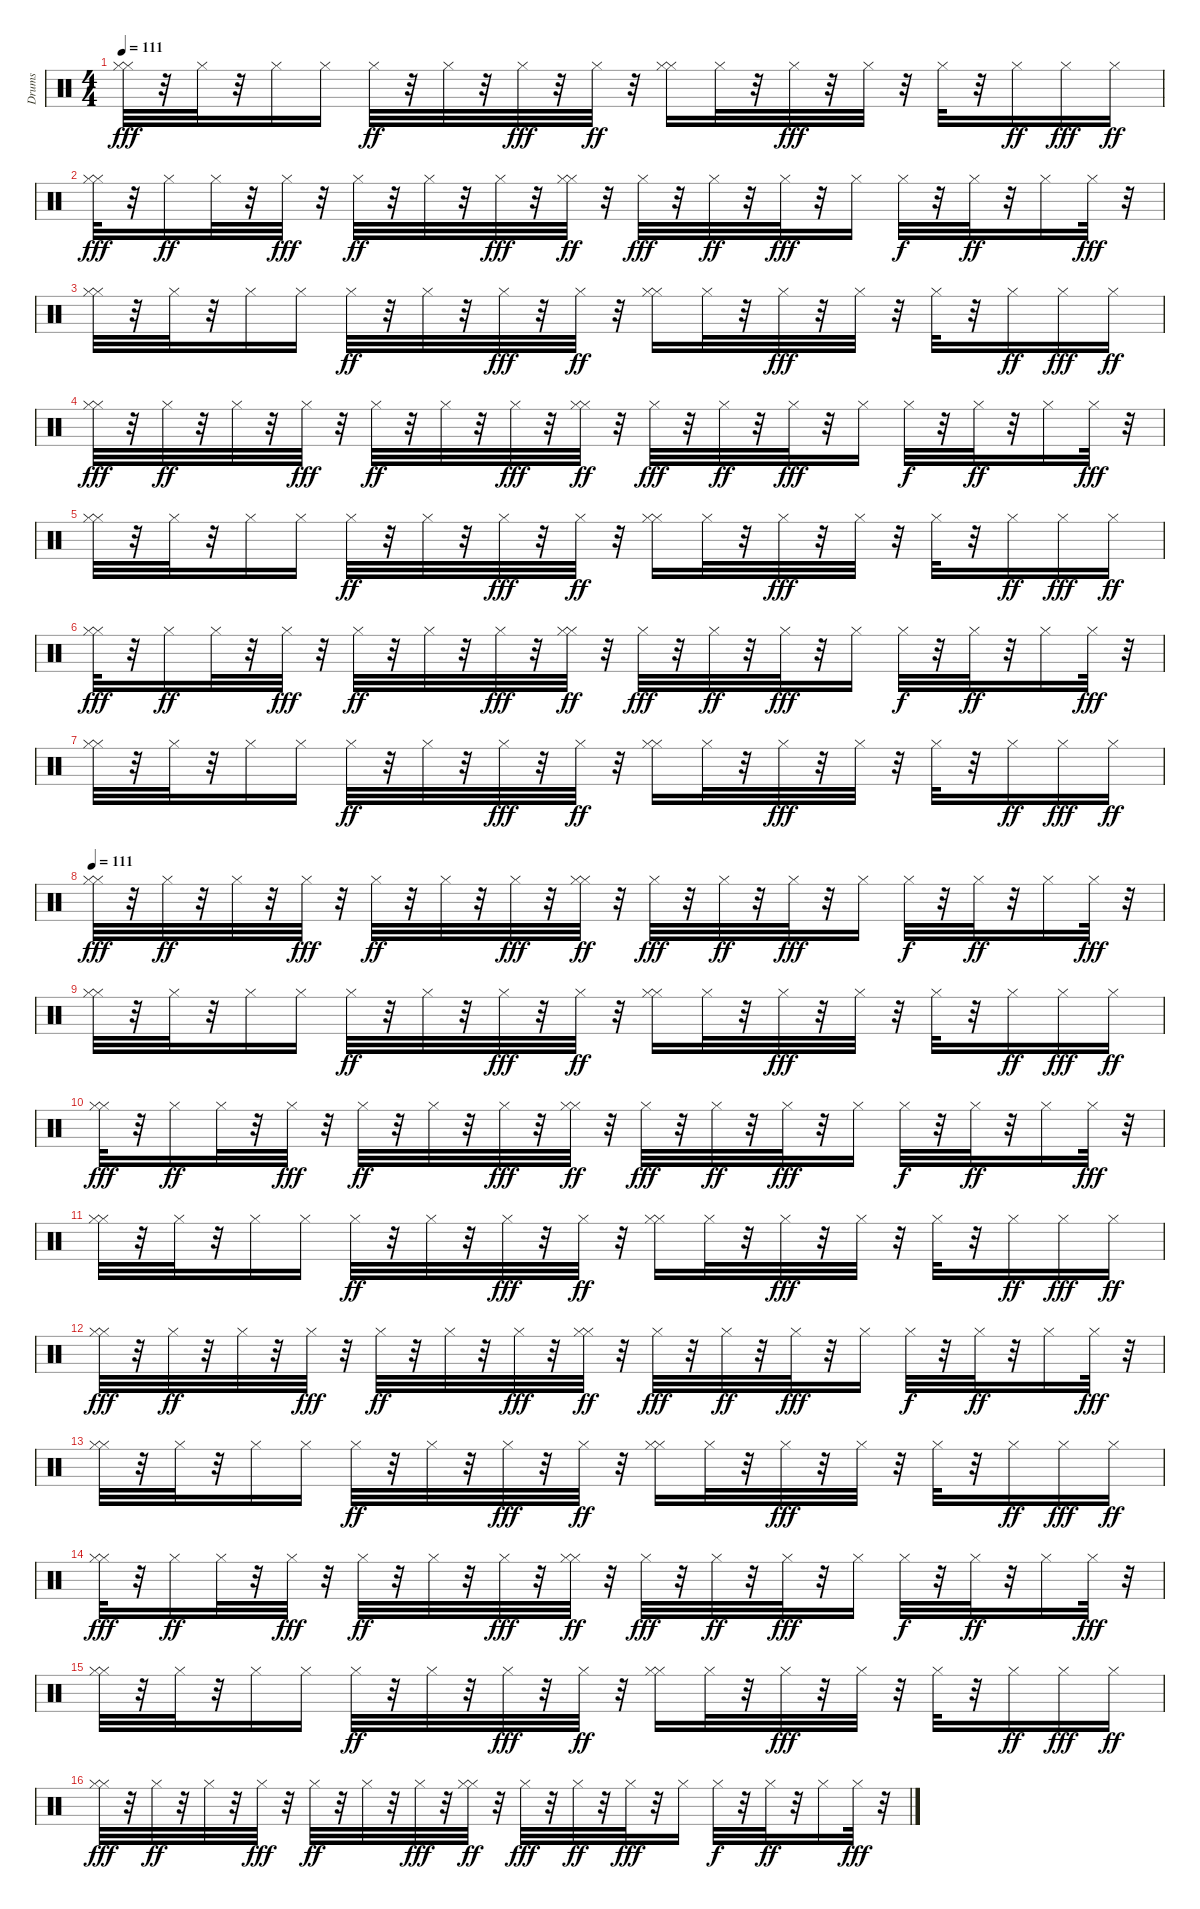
\track ("Drums" "Drums") {instrument percussion}
\staff {score}
\articulation defaults
\ts (4 4)
\tempo 111
\clef neutral
\ks c
("Hi-Hat (closed)" "Hi-Hat (closed)").32{dy fff} r.32 "Hi-Hat (closed)".32 r.32 "Hi-Hat (closed)".16 "Hi-Hat (closed)".16 "Hi-Hat (closed)".32{dy ff} r.32 "Hi-Hat (closed)".32 r.32 "Hi-Hat (closed)".32{dy fff} r.32 "Hi-Hat (closed)".32{dy ff} r.32 ("Hi-Hat (closed)" "Hi-Hat (closed)").16 "Hi-Hat (closed)".32 r.32 "Hi-Hat (closed)".32{dy fff} r.32 "Hi-Hat (closed)".32 r.32 "Hi-Hat (closed)".32 r.32 "Hi-Hat (closed)".16{dy ff} "Hi-Hat (closed)".16{dy fff} "Hi-Hat (closed)".16{dy ff} |
("Hi-Hat (closed)" "Hi-Hat (closed)").32{dy fff} r.32 "Hi-Hat (closed)".16{dy ff} "Hi-Hat (closed)".32 r.32 "Hi-Hat (closed)".32{dy fff} r.32 "Hi-Hat (closed)".32{dy ff} r.32 "Hi-Hat (closed)".32 r.32 "Hi-Hat (closed)".32{dy fff} r.32 ("Hi-Hat (closed)" "Hi-Hat (closed)").32{dy ff} r.32 "Hi-Hat (closed)".32{dy fff} r.32 "Hi-Hat (closed)".32{dy ff} r.32 "Hi-Hat (closed)".32{dy fff} r.32 "Hi-Hat (closed)".16 "Hi-Hat (closed)".32{dy f} r.32 "Hi-Hat (closed)".32{dy ff} r.32 "Hi-Hat (closed)".16 "Hi-Hat (closed)".32{dy fff} r.32 |
("Hi-Hat (closed)" "Hi-Hat (closed)").32 r.32 "Hi-Hat (closed)".32 r.32 "Hi-Hat (closed)".16 "Hi-Hat (closed)".16 "Hi-Hat (closed)".32{dy ff} r.32 "Hi-Hat (closed)".32 r.32 "Hi-Hat (closed)".32{dy fff} r.32 "Hi-Hat (closed)".32{dy ff} r.32 ("Hi-Hat (closed)" "Hi-Hat (closed)").16 "Hi-Hat (closed)".32 r.32 "Hi-Hat (closed)".32{dy fff} r.32 "Hi-Hat (closed)".32 r.32 "Hi-Hat (closed)".32 r.32 "Hi-Hat (closed)".16{dy ff} "Hi-Hat (closed)".16{dy fff} "Hi-Hat (closed)".16{dy ff} |
("Hi-Hat (closed)" "Hi-Hat (closed)").32{dy fff} r.32 "Hi-Hat (closed)".32{dy ff} r.32 "Hi-Hat (closed)".32 r.32 "Hi-Hat (closed)".32{dy fff} r.32 "Hi-Hat (closed)".32{dy ff} r.32 "Hi-Hat (closed)".32 r.32 "Hi-Hat (closed)".32{dy fff} r.32 ("Hi-Hat (closed)" "Hi-Hat (closed)").32{dy ff} r.32 "Hi-Hat (closed)".32{dy fff} r.32 "Hi-Hat (closed)".32{dy ff} r.32 "Hi-Hat (closed)".32{dy fff} r.32 "Hi-Hat (closed)".16 "Hi-Hat (closed)".32{dy f} r.32 "Hi-Hat (closed)".32{dy ff} r.32 "Hi-Hat (closed)".16 "Hi-Hat (closed)".32{dy fff} r.32 |
("Hi-Hat (closed)" "Hi-Hat (closed)").32 r.32 "Hi-Hat (closed)".32 r.32 "Hi-Hat (closed)".16 "Hi-Hat (closed)".16 "Hi-Hat (closed)".32{dy ff} r.32 "Hi-Hat (closed)".32 r.32 "Hi-Hat (closed)".32{dy fff} r.32 "Hi-Hat (closed)".32{dy ff} r.32 ("Hi-Hat (closed)" "Hi-Hat (closed)").16 "Hi-Hat (closed)".32 r.32 "Hi-Hat (closed)".32{dy fff} r.32 "Hi-Hat (closed)".32 r.32 "Hi-Hat (closed)".32 r.32 "Hi-Hat (closed)".16{dy ff} "Hi-Hat (closed)".16{dy fff} "Hi-Hat (closed)".16{dy ff} |
("Hi-Hat (closed)" "Hi-Hat (closed)").32{dy fff} r.32 "Hi-Hat (closed)".16{dy ff} "Hi-Hat (closed)".32 r.32 "Hi-Hat (closed)".32{dy fff} r.32 "Hi-Hat (closed)".32{dy ff} r.32 "Hi-Hat (closed)".32 r.32 "Hi-Hat (closed)".32{dy fff} r.32 ("Hi-Hat (closed)" "Hi-Hat (closed)").32{dy ff} r.32 "Hi-Hat (closed)".32{dy fff} r.32 "Hi-Hat (closed)".32{dy ff} r.32 "Hi-Hat (closed)".32{dy fff} r.32 "Hi-Hat (closed)".16 "Hi-Hat (closed)".32{dy f} r.32 "Hi-Hat (closed)".32{dy ff} r.32 "Hi-Hat (closed)".16 "Hi-Hat (closed)".32{dy fff} r.32 |
("Hi-Hat (closed)" "Hi-Hat (closed)").32 r.32 "Hi-Hat (closed)".32 r.32 "Hi-Hat (closed)".16 "Hi-Hat (closed)".16 "Hi-Hat (closed)".32{dy ff} r.32 "Hi-Hat (closed)".32 r.32 "Hi-Hat (closed)".32{dy fff} r.32 "Hi-Hat (closed)".32{dy ff} r.32 ("Hi-Hat (closed)" "Hi-Hat (closed)").16 "Hi-Hat (closed)".32 r.32 "Hi-Hat (closed)".32{dy fff} r.32 "Hi-Hat (closed)".32 r.32 "Hi-Hat (closed)".32 r.32 "Hi-Hat (closed)".16{dy ff} "Hi-Hat (closed)".16{dy fff} "Hi-Hat (closed)".16{dy ff} |
\tempo 111
("Hi-Hat (closed)" "Hi-Hat (closed)").32{dy fff} r.32 "Hi-Hat (closed)".32{dy ff} r.32 "Hi-Hat (closed)".32 r.32 "Hi-Hat (closed)".32{dy fff} r.32 "Hi-Hat (closed)".32{dy ff} r.32 "Hi-Hat (closed)".32 r.32 "Hi-Hat (closed)".32{dy fff} r.32 ("Hi-Hat (closed)" "Hi-Hat (closed)").32{dy ff} r.32 "Hi-Hat (closed)".32{dy fff} r.32 "Hi-Hat (closed)".32{dy ff} r.32 "Hi-Hat (closed)".32{dy fff} r.32 "Hi-Hat (closed)".16 "Hi-Hat (closed)".32{dy f} r.32 "Hi-Hat (closed)".32{dy ff} r.32 "Hi-Hat (closed)".16 "Hi-Hat (closed)".32{dy fff} r.32 |
("Hi-Hat (closed)" "Hi-Hat (closed)").32 r.32 "Hi-Hat (closed)".32 r.32 "Hi-Hat (closed)".16 "Hi-Hat (closed)".16 "Hi-Hat (closed)".32{dy ff} r.32 "Hi-Hat (closed)".32 r.32 "Hi-Hat (closed)".32{dy fff} r.32 "Hi-Hat (closed)".32{dy ff} r.32 ("Hi-Hat (closed)" "Hi-Hat (closed)").16 "Hi-Hat (closed)".32 r.32 "Hi-Hat (closed)".32{dy fff} r.32 "Hi-Hat (closed)".32 r.32 "Hi-Hat (closed)".32 r.32 "Hi-Hat (closed)".16{dy ff} "Hi-Hat (closed)".16{dy fff} "Hi-Hat (closed)".16{dy ff} |
("Hi-Hat (closed)" "Hi-Hat (closed)").32{dy fff} r.32 "Hi-Hat (closed)".16{dy ff} "Hi-Hat (closed)".32 r.32 "Hi-Hat (closed)".32{dy fff} r.32 "Hi-Hat (closed)".32{dy ff} r.32 "Hi-Hat (closed)".32 r.32 "Hi-Hat (closed)".32{dy fff} r.32 ("Hi-Hat (closed)" "Hi-Hat (closed)").32{dy ff} r.32 "Hi-Hat (closed)".32{dy fff} r.32 "Hi-Hat (closed)".32{dy ff} r.32 "Hi-Hat (closed)".32{dy fff} r.32 "Hi-Hat (closed)".16 "Hi-Hat (closed)".32{dy f} r.32 "Hi-Hat (closed)".32{dy ff} r.32 "Hi-Hat (closed)".16 "Hi-Hat (closed)".32{dy fff} r.32 |
("Hi-Hat (closed)" "Hi-Hat (closed)").32 r.32 "Hi-Hat (closed)".32 r.32 "Hi-Hat (closed)".16 "Hi-Hat (closed)".16 "Hi-Hat (closed)".32{dy ff} r.32 "Hi-Hat (closed)".32 r.32 "Hi-Hat (closed)".32{dy fff} r.32 "Hi-Hat (closed)".32{dy ff} r.32 ("Hi-Hat (closed)" "Hi-Hat (closed)").16 "Hi-Hat (closed)".32 r.32 "Hi-Hat (closed)".32{dy fff} r.32 "Hi-Hat (closed)".32 r.32 "Hi-Hat (closed)".32 r.32 "Hi-Hat (closed)".16{dy ff} "Hi-Hat (closed)".16{dy fff} "Hi-Hat (closed)".16{dy ff} |
("Hi-Hat (closed)" "Hi-Hat (closed)").32{dy fff} r.32 "Hi-Hat (closed)".32{dy ff} r.32 "Hi-Hat (closed)".32 r.32 "Hi-Hat (closed)".32{dy fff} r.32 "Hi-Hat (closed)".32{dy ff} r.32 "Hi-Hat (closed)".32 r.32 "Hi-Hat (closed)".32{dy fff} r.32 ("Hi-Hat (closed)" "Hi-Hat (closed)").32{dy ff} r.32 "Hi-Hat (closed)".32{dy fff} r.32 "Hi-Hat (closed)".32{dy ff} r.32 "Hi-Hat (closed)".32{dy fff} r.32 "Hi-Hat (closed)".16 "Hi-Hat (closed)".32{dy f} r.32 "Hi-Hat (closed)".32{dy ff} r.32 "Hi-Hat (closed)".16 "Hi-Hat (closed)".32{dy fff} r.32 |
("Hi-Hat (closed)" "Hi-Hat (closed)").32 r.32 "Hi-Hat (closed)".32 r.32 "Hi-Hat (closed)".16 "Hi-Hat (closed)".16 "Hi-Hat (closed)".32{dy ff} r.32 "Hi-Hat (closed)".32 r.32 "Hi-Hat (closed)".32{dy fff} r.32 "Hi-Hat (closed)".32{dy ff} r.32 ("Hi-Hat (closed)" "Hi-Hat (closed)").16 "Hi-Hat (closed)".32 r.32 "Hi-Hat (closed)".32{dy fff} r.32 "Hi-Hat (closed)".32 r.32 "Hi-Hat (closed)".32 r.32 "Hi-Hat (closed)".16{dy ff} "Hi-Hat (closed)".16{dy fff} "Hi-Hat (closed)".16{dy ff} |
("Hi-Hat (closed)" "Hi-Hat (closed)").32{dy fff} r.32 "Hi-Hat (closed)".16{dy ff} "Hi-Hat (closed)".32 r.32 "Hi-Hat (closed)".32{dy fff} r.32 "Hi-Hat (closed)".32{dy ff} r.32 "Hi-Hat (closed)".32 r.32 "Hi-Hat (closed)".32{dy fff} r.32 ("Hi-Hat (closed)" "Hi-Hat (closed)").32{dy ff} r.32 "Hi-Hat (closed)".32{dy fff} r.32 "Hi-Hat (closed)".32{dy ff} r.32 "Hi-Hat (closed)".32{dy fff} r.32 "Hi-Hat (closed)".16 "Hi-Hat (closed)".32{dy f} r.32 "Hi-Hat (closed)".32{dy ff} r.32 "Hi-Hat (closed)".16 "Hi-Hat (closed)".32{dy fff} r.32 |
("Hi-Hat (closed)" "Hi-Hat (closed)").32 r.32 "Hi-Hat (closed)".32 r.32 "Hi-Hat (closed)".16 "Hi-Hat (closed)".16 "Hi-Hat (closed)".32{dy ff} r.32 "Hi-Hat (closed)".32 r.32 "Hi-Hat (closed)".32{dy fff} r.32 "Hi-Hat (closed)".32{dy ff} r.32 ("Hi-Hat (closed)" "Hi-Hat (closed)").16 "Hi-Hat (closed)".32 r.32 "Hi-Hat (closed)".32{dy fff} r.32 "Hi-Hat (closed)".32 r.32 "Hi-Hat (closed)".32 r.32 "Hi-Hat (closed)".16{dy ff} "Hi-Hat (closed)".16{dy fff} "Hi-Hat (closed)".16{dy ff} |
("Hi-Hat (closed)" "Hi-Hat (closed)").32{dy fff} r.32 "Hi-Hat (closed)".32{dy ff} r.32 "Hi-Hat (closed)".32 r.32 "Hi-Hat (closed)".32{dy fff} r.32 "Hi-Hat (closed)".32{dy ff} r.32 "Hi-Hat (closed)".32 r.32 "Hi-Hat (closed)".32{dy fff} r.32 ("Hi-Hat (closed)" "Hi-Hat (closed)").32{dy ff} r.32 "Hi-Hat (closed)".32{dy fff} r.32 "Hi-Hat (closed)".32{dy ff} r.32 "Hi-Hat (closed)".32{dy fff} r.32 "Hi-Hat (closed)".16 "Hi-Hat (closed)".32{dy f} r.32 "Hi-Hat (closed)".32{dy ff} r.32 "Hi-Hat (closed)".16 "Hi-Hat (closed)".32{dy fff} r.32
